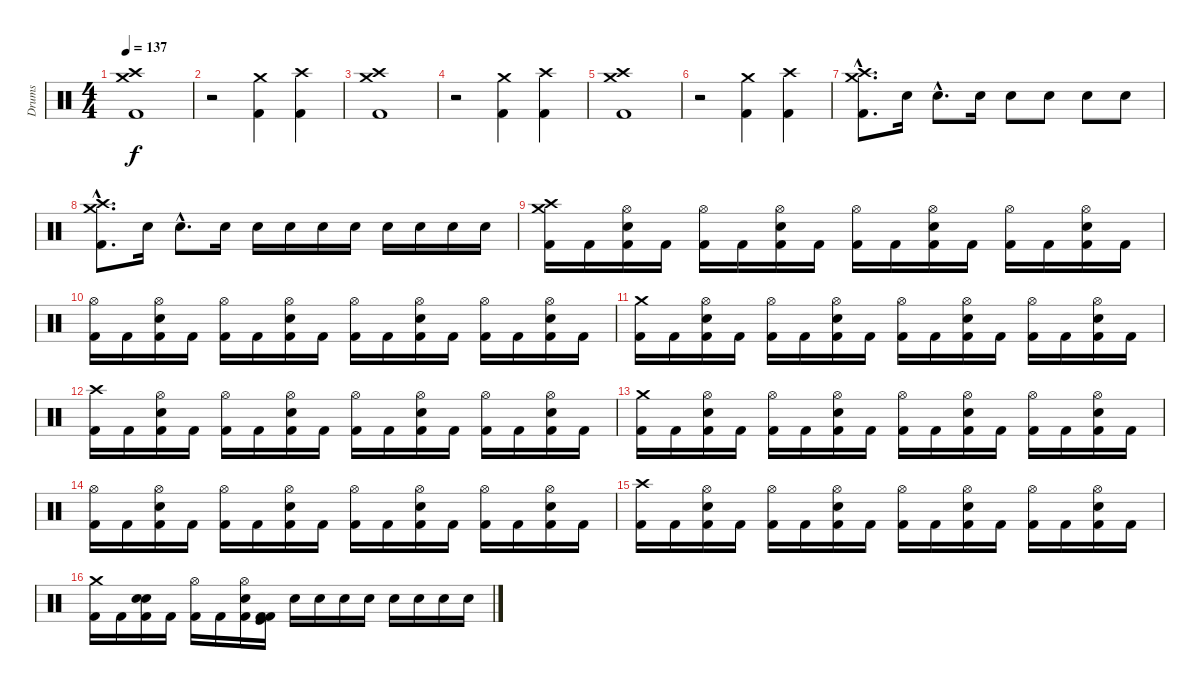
\track ("Drums" "Drums") {instrument percussion}
\staff {score}
\articulation defaults
\ts (4 4)
\tempo 137
\clef neutral
\ks c
("Crash high (hit)" "Crash medium (hit)" "Kick (hit) 2").1{dy f} |
r.2 ("Crash medium (hit)" "Kick (hit) 2").4 ("Crash high (hit)" "Kick (hit) 2").4 |
("Crash medium (hit)" "Crash high (hit)" "Kick (hit) 2").1 |
r.2 ("Crash medium (hit)" "Kick (hit) 2").4 ("Crash high (hit)" "Kick (hit) 2").4 |
("Crash medium (hit)" "Crash high (hit)" "Kick (hit) 2").1 |
r.2 ("Crash medium (hit)" "Kick (hit) 2").4 ("Crash high (hit)" "Kick (hit) 2").4 |
("Crash high (hit)" "Crash medium (hit)" "Kick (hit) 2"{hac}).8{d} "Snare (hit) 2".16 "Snare (hit) 2"{hac}.8{d} "Snare (hit) 2".16 "Snare (hit) 2".8 "Snare (hit) 2".8 "Snare (hit) 2".8 "Snare (hit) 2".8 |
("Crash medium (hit)" "Crash high (hit)" "Kick (hit) 2"{hac}).8{d} "Snare (hit) 2".16 "Snare (hit) 2"{hac}.8{d} "Snare (hit) 2".16 "Snare (hit) 2".16 "Snare (hit) 2".16 "Snare (hit) 2".16 "Snare (hit) 2".16 "Snare (hit) 2".16 "Snare (hit) 2".16 "Snare (hit) 2".16 "Snare (hit) 2".16 |
("Crash medium (hit)" "Crash high (hit)" "Kick (hit) 2").16 "Kick (hit) 2".16 ("Hi-Hat (open)" "Snare (hit) 2" "Kick (hit) 2").16 "Kick (hit) 2".16 ("Hi-Hat (open)" "Kick (hit) 2").16 "Kick (hit) 2".16 ("Hi-Hat (open)" "Snare (hit) 2" "Kick (hit) 2").16 "Kick (hit) 2".16 ("Hi-Hat (open)" "Kick (hit) 2").16 "Kick (hit) 2".16 ("Hi-Hat (open)" "Snare (hit) 2" "Kick (hit) 2").16 "Kick (hit) 2".16 ("Hi-Hat (open)" "Kick (hit) 2").16 "Kick (hit) 2".16 ("Hi-Hat (open)" "Snare (hit) 2" "Kick (hit) 2").16 "Kick (hit) 2".16 |
("Hi-Hat (open)" "Kick (hit) 2").16 "Kick (hit) 2".16 ("Hi-Hat (open)" "Snare (hit) 2" "Kick (hit) 2").16 "Kick (hit) 2".16 ("Hi-Hat (open)" "Kick (hit) 2").16 "Kick (hit) 2".16 ("Hi-Hat (open)" "Snare (hit) 2" "Kick (hit) 2").16 "Kick (hit) 2".16 ("Hi-Hat (open)" "Kick (hit) 2").16 "Kick (hit) 2".16 ("Hi-Hat (open)" "Snare (hit) 2" "Kick (hit) 2").16 "Kick (hit) 2".16 ("Hi-Hat (open)" "Kick (hit) 2").16 "Kick (hit) 2".16 ("Hi-Hat (open)" "Snare (hit) 2" "Kick (hit) 2").16 "Kick (hit) 2".16 |
("Crash medium (hit)" "Kick (hit) 2").16 "Kick (hit) 2".16 ("Hi-Hat (open)" "Snare (hit) 2" "Kick (hit) 2").16 "Kick (hit) 2".16 ("Hi-Hat (open)" "Kick (hit) 2").16 "Kick (hit) 2".16 ("Hi-Hat (open)" "Snare (hit) 2" "Kick (hit) 2").16 "Kick (hit) 2".16 ("Hi-Hat (open)" "Kick (hit) 2").16 "Kick (hit) 2".16 ("Hi-Hat (open)" "Snare (hit) 2" "Kick (hit) 2").16 "Kick (hit) 2".16 ("Hi-Hat (open)" "Kick (hit) 2").16 "Kick (hit) 2".16 ("Hi-Hat (open)" "Snare (hit) 2" "Kick (hit) 2").16 "Kick (hit) 2".16 |
("Crash high (hit)" "Kick (hit) 2").16 "Kick (hit) 2".16 ("Hi-Hat (open)" "Snare (hit) 2" "Kick (hit) 2").16 "Kick (hit) 2".16 ("Hi-Hat (open)" "Kick (hit) 2").16 "Kick (hit) 2".16 ("Hi-Hat (open)" "Snare (hit) 2" "Kick (hit) 2").16 "Kick (hit) 2".16 ("Hi-Hat (open)" "Kick (hit) 2").16 "Kick (hit) 2".16 ("Hi-Hat (open)" "Snare (hit) 2" "Kick (hit) 2").16 "Kick (hit) 2".16 ("Hi-Hat (open)" "Kick (hit) 2").16 "Kick (hit) 2".16 ("Hi-Hat (open)" "Snare (hit) 2" "Kick (hit) 2").16 "Kick (hit) 2".16 |
("Crash medium (hit)" "Kick (hit) 2").16 "Kick (hit) 2".16 ("Hi-Hat (open)" "Snare (hit) 2" "Kick (hit) 2").16 "Kick (hit) 2".16 ("Hi-Hat (open)" "Kick (hit) 2").16 "Kick (hit) 2".16 ("Hi-Hat (open)" "Snare (hit) 2" "Kick (hit) 2").16 "Kick (hit) 2".16 ("Hi-Hat (open)" "Kick (hit) 2").16 "Kick (hit) 2".16 ("Hi-Hat (open)" "Snare (hit) 2" "Kick (hit) 2").16 "Kick (hit) 2".16 ("Hi-Hat (open)" "Kick (hit) 2").16 "Kick (hit) 2".16 ("Hi-Hat (open)" "Snare (hit) 2" "Kick (hit) 2").16 "Kick (hit) 2".16 |
("Hi-Hat (open)" "Kick (hit) 2").16 "Kick (hit) 2".16 ("Hi-Hat (open)" "Snare (hit) 2" "Kick (hit) 2").16 "Kick (hit) 2".16 ("Hi-Hat (open)" "Kick (hit) 2").16 "Kick (hit) 2".16 ("Hi-Hat (open)" "Snare (hit) 2" "Kick (hit) 2").16 "Kick (hit) 2".16 ("Hi-Hat (open)" "Kick (hit) 2").16 "Kick (hit) 2".16 ("Hi-Hat (open)" "Snare (hit) 2" "Kick (hit) 2").16 "Kick (hit) 2".16 ("Hi-Hat (open)" "Kick (hit) 2").16 "Kick (hit) 2".16 ("Hi-Hat (open)" "Snare (hit) 2" "Kick (hit) 2").16 "Kick (hit) 2".16 |
("Crash high (hit)" "Kick (hit) 2").16 "Kick (hit) 2".16 ("Hi-Hat (open)" "Snare (hit) 2" "Kick (hit) 2").16 "Kick (hit) 2".16 ("Hi-Hat (open)" "Kick (hit) 2").16 "Kick (hit) 2".16 ("Hi-Hat (open)" "Snare (hit) 2" "Kick (hit) 2").16 "Kick (hit) 2".16 ("Hi-Hat (open)" "Kick (hit) 2").16 "Kick (hit) 2".16 ("Hi-Hat (open)" "Snare (hit) 2" "Kick (hit) 2").16 "Kick (hit) 2".16 ("Hi-Hat (open)" "Kick (hit) 2").16 "Kick (hit) 2".16 ("Hi-Hat (open)" "Snare (hit) 2" "Kick (hit) 2").16 "Kick (hit) 2".16 |
("Crash medium (hit)" "Kick (hit) 2").16 "Kick (hit) 2".16 ("Electric Snare (hit)" "Snare (hit) 2" "Kick (hit) 2").16 "Kick (hit) 2".16 ("Hi-Hat (open)" "Kick (hit) 2").16 "Kick (hit) 2".16 ("Hi-Hat (open)" "Snare (hit) 2" "Kick (hit) 2").16 ("Kick (hit)" "Kick (hit) 2" "Kick (hit) 2").16 "Snare (hit) 2".16 "Snare (hit) 2".16 "Snare (hit) 2".16 "Snare (hit) 2".16 "Snare (hit) 2".16 "Snare (hit) 2".16 "Snare (hit) 2".16 "Snare (hit) 2".16
